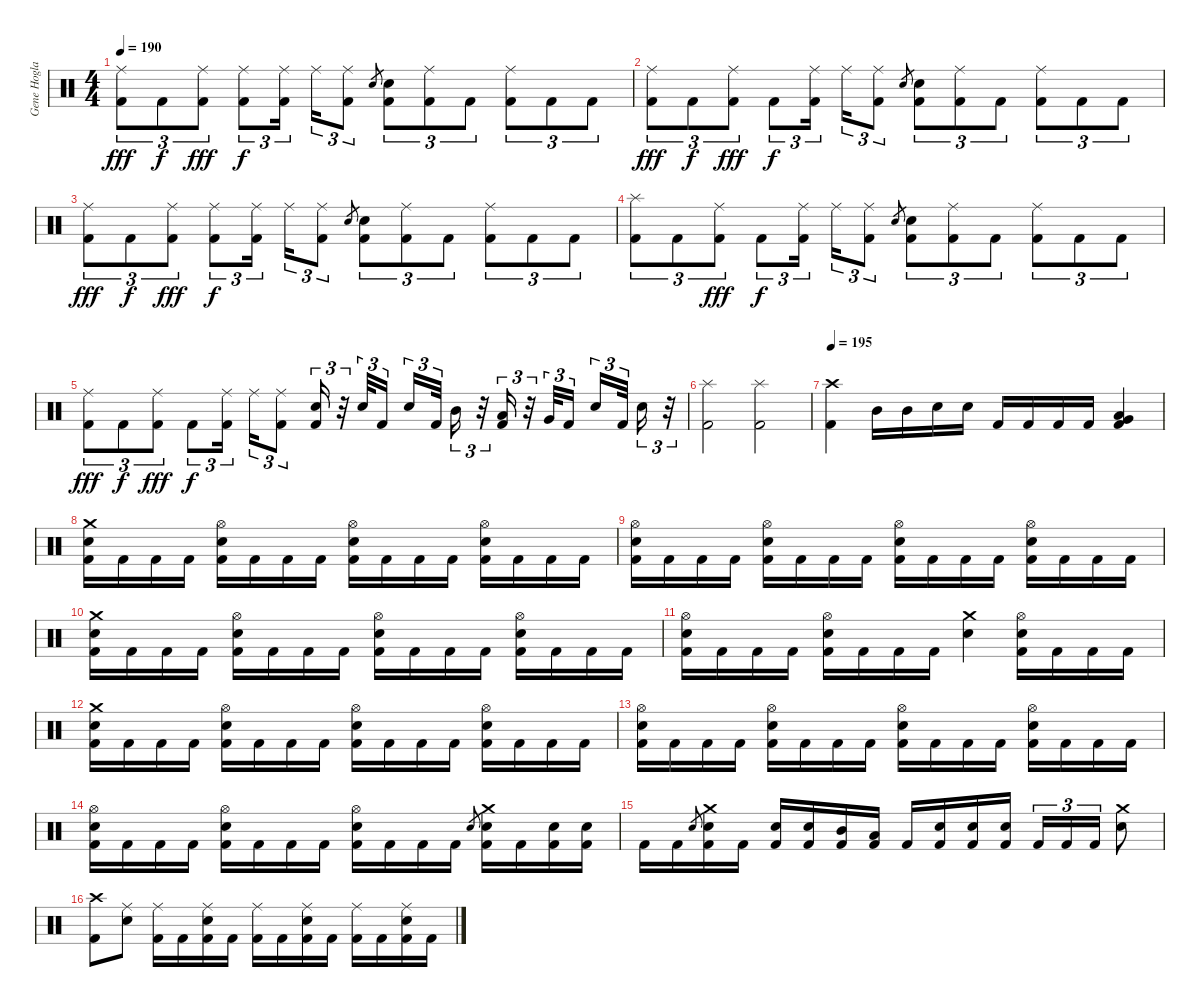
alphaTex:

\track ("Gene Hoglan" "Gene Hogla") {instrument percussion}
\staff {score}
\articulation defaults
\ts (4 4)
\tempo 190
\clef neutral
\ks c
("Ride (middle)" "Kick (hit) 2").8{tu (3 2) dy fff} "Kick (hit) 2".8{tu (3 2) dy f} ("Ride (middle)" "Kick (hit) 2").8{tu (3 2) dy fff} ("Ride (middle)" "Kick (hit) 2").8{tu (3 2) dy f} ("Ride (middle)" "Kick (hit) 2").16{tu (3 2)} "Ride (middle)".16{tu (3 2)} ("Ride (middle)" "Kick (hit) 2").8{tu (3 2)} "Electric Snare (hit)".8{gr} ("Electric Snare (hit)" "Kick (hit) 2").8{tu (3 2)} ("Ride (middle)" "Kick (hit) 2").8{tu (3 2)} "Kick (hit) 2".8{tu (3 2)} ("Ride (middle)" "Kick (hit) 2").8{tu (3 2)} "Kick (hit) 2".8{tu (3 2)} "Kick (hit) 2".8{tu (3 2)} |
("Ride (middle)" "Kick (hit) 2").8{tu (3 2) dy fff} "Kick (hit) 2".8{tu (3 2) dy f} ("Ride (middle)" "Kick (hit) 2").8{tu (3 2) dy fff} "Kick (hit) 2".8{tu (3 2) dy f} ("Ride (middle)" "Kick (hit) 2").16{tu (3 2)} "Ride (middle)".16{tu (3 2)} ("Ride (middle)" "Kick (hit) 2").8{tu (3 2)} "Electric Snare (hit)".8{gr} ("Electric Snare (hit)" "Kick (hit) 2").8{tu (3 2)} ("Ride (middle)" "Kick (hit) 2").8{tu (3 2)} "Kick (hit) 2".8{tu (3 2)} ("Ride (middle)" "Kick (hit) 2").8{tu (3 2)} "Kick (hit) 2".8{tu (3 2)} "Kick (hit) 2".8{tu (3 2)} |
("Ride (middle)" "Kick (hit) 2").8{tu (3 2) dy fff} "Kick (hit) 2".8{tu (3 2) dy f} ("Ride (middle)" "Kick (hit) 2").8{tu (3 2) dy fff} ("Ride (middle)" "Kick (hit) 2").8{tu (3 2) dy f} ("Ride (middle)" "Kick (hit) 2").16{tu (3 2)} "Ride (middle)".16{tu (3 2)} ("Ride (middle)" "Kick (hit) 2").8{tu (3 2)} "Electric Snare (hit)".8{gr} ("Electric Snare (hit)" "Kick (hit) 2").8{tu (3 2)} ("Ride (middle)" "Kick (hit) 2").8{tu (3 2)} "Kick (hit) 2".8{tu (3 2)} ("Ride (middle)" "Kick (hit) 2").8{tu (3 2)} "Kick (hit) 2".8{tu (3 2)} "Kick (hit) 2".8{tu (3 2)} |
("Splash (hit)" "Kick (hit) 2").8{tu (3 2)} "Kick (hit) 2".8{tu (3 2)} ("Ride (middle)" "Kick (hit) 2").8{tu (3 2) dy fff} "Kick (hit) 2".8{tu (3 2) dy f} ("Ride (middle)" "Kick (hit) 2").16{tu (3 2)} "Ride (middle)".16{tu (3 2)} ("Ride (middle)" "Kick (hit) 2").8{tu (3 2)} "Electric Snare (hit)".8{gr} ("Electric Snare (hit)" "Kick (hit) 2").8{tu (3 2)} ("Ride (middle)" "Kick (hit) 2").8{tu (3 2)} "Kick (hit) 2".8{tu (3 2)} ("Ride (middle)" "Kick (hit) 2").8{tu (3 2)} "Kick (hit) 2".8{tu (3 2)} "Kick (hit) 2".8{tu (3 2)} |
("Ride (middle)" "Kick (hit) 2").8{tu (3 2) dy fff} "Kick (hit) 2".8{tu (3 2) dy f} ("Ride (middle)" "Kick (hit) 2").8{tu (3 2) dy fff} "Kick (hit) 2".8{tu (3 2) dy f} ("Ride (middle)" "Kick (hit) 2").16{tu (3 2)} "Ride (middle)".16{tu (3 2)} ("Ride (middle)" "Kick (hit) 2").8{tu (3 2)} ("Electric Snare (hit)" "Kick (hit) 2").16{tu (3 2)} r.32{tu (3 2)} "Electric Snare (hit)".32{tu (3 2)} "Kick (hit) 2".16{tu (3 2)} "Electric Snare (hit)".16{tu (3 2)} "Kick (hit) 2".32{tu (3 2)} "Mid Tom (hit)".16{tu (3 2)} r.32{tu (3 2)} ("Low Tom (hit)" "Kick (hit) 2").16{tu (3 2)} r.32{tu (3 2)} "Very Low Tom (hit)".32{tu (3 2)} "Kick (hit) 2".16{tu (3 2)} "Electric Snare (hit)".16{tu (3 2)} "Kick (hit) 2".32{tu (3 2)} "Electric Snare (hit)".16{tu (3 2)} r.32{tu (3 2)} |
("Splash (hit)" "Kick (hit) 2").2 ("Splash (hit)" "Kick (hit) 2").2 |
\tempo 195
("Crash high (hit)" "Kick (hit) 2").4 "Mid Tom (hit)".16 "Mid Tom (hit)".16 "Electric Snare (hit)".16 "Electric Snare (hit)".16 "Kick (hit) 2".16 "Kick (hit) 2".16 "Kick (hit) 2".16 "Kick (hit) 2".16 ("Low Tom (hit)" "Very Low Tom (hit)" "Kick (hit) 2").4 |
("Crash medium (hit)" "Electric Snare (hit)" "Kick (hit) 2").16 "Kick (hit) 2".16 "Kick (hit) 2".16 "Kick (hit) 2".16 ("Hi-Hat (open)" "Electric Snare (hit)" "Kick (hit) 2").16 "Kick (hit) 2".16 "Kick (hit) 2".16 "Kick (hit) 2".16 ("Hi-Hat (open)" "Electric Snare (hit)" "Kick (hit) 2").16 "Kick (hit) 2".16 "Kick (hit) 2".16 "Kick (hit) 2".16 ("Hi-Hat (open)" "Electric Snare (hit)" "Kick (hit) 2").16 "Kick (hit) 2".16 "Kick (hit) 2".16 "Kick (hit) 2".16 |
("Hi-Hat (open)" "Electric Snare (hit)" "Kick (hit) 2").16 "Kick (hit) 2".16 "Kick (hit) 2".16 "Kick (hit) 2".16 ("Hi-Hat (open)" "Electric Snare (hit)" "Kick (hit) 2").16 "Kick (hit) 2".16 "Kick (hit) 2".16 "Kick (hit) 2".16 ("Hi-Hat (open)" "Electric Snare (hit)" "Kick (hit) 2").16 "Kick (hit) 2".16 "Kick (hit) 2".16 "Kick (hit) 2".16 ("Hi-Hat (open)" "Electric Snare (hit)" "Kick (hit) 2").16 "Kick (hit) 2".16 "Kick (hit) 2".16 "Kick (hit) 2".16 |
("Crash medium (hit)" "Electric Snare (hit)" "Kick (hit) 2").16 "Kick (hit) 2".16 "Kick (hit) 2".16 "Kick (hit) 2".16 ("Hi-Hat (open)" "Electric Snare (hit)" "Kick (hit) 2").16 "Kick (hit) 2".16 "Kick (hit) 2".16 "Kick (hit) 2".16 ("Hi-Hat (open)" "Electric Snare (hit)" "Kick (hit) 2").16 "Kick (hit) 2".16 "Kick (hit) 2".16 "Kick (hit) 2".16 ("Hi-Hat (open)" "Electric Snare (hit)" "Kick (hit) 2").16 "Kick (hit) 2".16 "Kick (hit) 2".16 "Kick (hit) 2".16 |
("Hi-Hat (open)" "Electric Snare (hit)" "Kick (hit) 2").16 "Kick (hit) 2".16 "Kick (hit) 2".16 "Kick (hit) 2".16 ("Hi-Hat (open)" "Electric Snare (hit)" "Kick (hit) 2").16 "Kick (hit) 2".16 "Kick (hit) 2".16 "Kick (hit) 2".16 ("Crash medium (hit)" "Electric Snare (hit)").4 ("Hi-Hat (open)" "Electric Snare (hit)" "Kick (hit) 2").16 "Kick (hit) 2".16 "Kick (hit) 2".16 "Kick (hit) 2".16 |
("Crash medium (hit)" "Electric Snare (hit)" "Kick (hit) 2").16 "Kick (hit) 2".16 "Kick (hit) 2".16 "Kick (hit) 2".16 ("Hi-Hat (open)" "Electric Snare (hit)" "Kick (hit) 2").16 "Kick (hit) 2".16 "Kick (hit) 2".16 "Kick (hit) 2".16 ("Hi-Hat (open)" "Electric Snare (hit)" "Kick (hit) 2").16 "Kick (hit) 2".16 "Kick (hit) 2".16 "Kick (hit) 2".16 ("Hi-Hat (open)" "Electric Snare (hit)" "Kick (hit) 2").16 "Kick (hit) 2".16 "Kick (hit) 2".16 "Kick (hit) 2".16 |
("Hi-Hat (open)" "Electric Snare (hit)" "Kick (hit) 2").16 "Kick (hit) 2".16 "Kick (hit) 2".16 "Kick (hit) 2".16 ("Hi-Hat (open)" "Electric Snare (hit)" "Kick (hit) 2").16 "Kick (hit) 2".16 "Kick (hit) 2".16 "Kick (hit) 2".16 ("Hi-Hat (open)" "Electric Snare (hit)" "Kick (hit) 2").16 "Kick (hit) 2".16 "Kick (hit) 2".16 "Kick (hit) 2".16 ("Hi-Hat (open)" "Electric Snare (hit)" "Kick (hit) 2").16 "Kick (hit) 2".16 "Kick (hit) 2".16 "Kick (hit) 2".16 |
("Hi-Hat (open)" "Electric Snare (hit)" "Kick (hit) 2").16 "Kick (hit) 2".16 "Kick (hit) 2".16 "Kick (hit) 2".16 ("Hi-Hat (open)" "Electric Snare (hit)" "Kick (hit) 2").16 "Kick (hit) 2".16 "Kick (hit) 2".16 "Kick (hit) 2".16 ("Hi-Hat (open)" "Electric Snare (hit)" "Kick (hit) 2").16 "Kick (hit) 2".16 "Kick (hit) 2".16 "Kick (hit) 2".16 "Electric Snare (hit)".8{gr} ("Crash medium (hit)" "Electric Snare (hit)" "Kick (hit) 2").16 "Kick (hit) 2".16 ("Electric Snare (hit)" "Kick (hit) 2").16 ("Electric Snare (hit)" "Kick (hit) 2").16 |
"Kick (hit) 2".16 "Kick (hit) 2".16 "Electric Snare (hit)".8{gr} ("Crash medium (hit)" "Electric Snare (hit)" "Kick (hit) 2").16 "Kick (hit) 2".16 ("Electric Snare (hit)" "Kick (hit) 2").16 ("Electric Snare (hit)" "Kick (hit) 2").16 ("Mid Tom (hit)" "Kick (hit) 2").16 ("Low Tom (hit)" "Kick (hit) 2").16 "Kick (hit) 2".16 ("Electric Snare (hit)" "Kick (hit) 2").16 ("Electric Snare (hit)" "Kick (hit) 2").16 ("Electric Snare (hit)" "Kick (hit) 2").16 "Kick (hit) 2".16{tu (3 2)} "Kick (hit) 2".16{tu (3 2)} "Kick (hit) 2".16{tu (3 2)} ("Crash medium (hit)" "Electric Snare (hit)").8 |
("Crash high (hit)" "Kick (hit) 2").8 ("Ride (middle)" "Electric Snare (hit)").8 ("Ride (middle)" "Kick (hit) 2").16 "Kick (hit) 2".16 ("Ride (middle)" "Electric Snare (hit)" "Kick (hit) 2").16 "Kick (hit) 2".16 ("Ride (middle)" "Kick (hit) 2").16 "Kick (hit) 2".16 ("Ride (middle)" "Electric Snare (hit)" "Kick (hit) 2").16 "Kick (hit) 2".16 ("Ride (middle)" "Kick (hit) 2").16 "Kick (hit) 2".16 ("Ride (middle)" "Electric Snare (hit)" "Kick (hit) 2").16 "Kick (hit) 2".16
